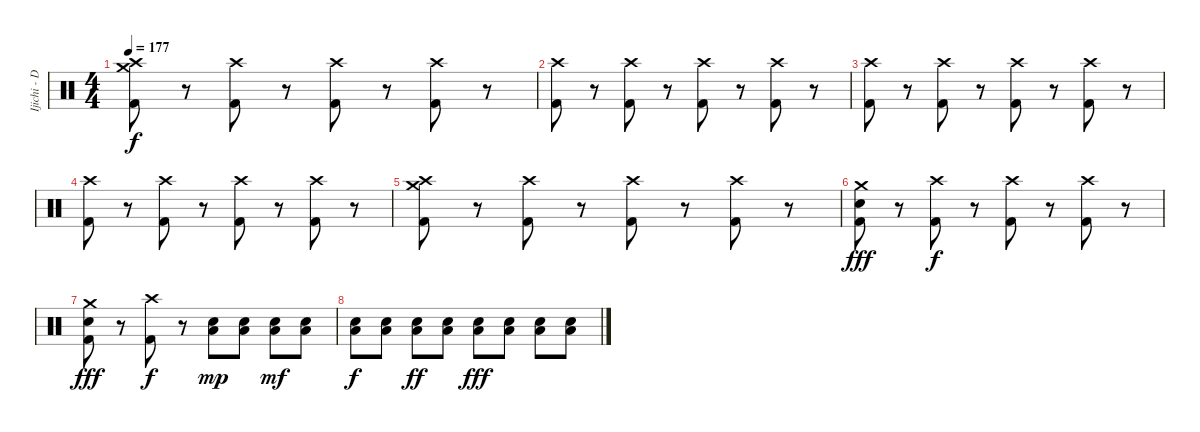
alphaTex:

\track ("Ijichi - Drums" "Ijichi - D") {instrument percussion}
\staff {score}
\articulation defaults
\ts (4 4)
\tempo 177
\clef neutral
\ks c
("Crash high (hit)" "Crash medium (hit)" "Kick (hit) 2").8{dy f} r.8 ("Crash high (hit)" "Kick (hit) 2").8 r.8 ("Crash high (hit)" "Kick (hit) 2").8 r.8 ("Crash high (hit)" "Kick (hit) 2").8 r.8 |
("Crash high (hit)" "Kick (hit) 2").8 r.8 ("Crash high (hit)" "Kick (hit) 2").8 r.8 ("Crash high (hit)" "Kick (hit) 2").8 r.8 ("Crash high (hit)" "Kick (hit) 2").8 r.8 |
("Crash high (hit)" "Kick (hit) 2").8 r.8 ("Crash high (hit)" "Kick (hit) 2").8 r.8 ("Crash high (hit)" "Kick (hit) 2").8 r.8 ("Crash high (hit)" "Kick (hit) 2").8 r.8 |
("Crash high (hit)" "Kick (hit) 2").8 r.8 ("Crash high (hit)" "Kick (hit) 2").8 r.8 ("Crash high (hit)" "Kick (hit) 2").8 r.8 ("Crash high (hit)" "Kick (hit) 2").8 r.8 |
("Crash high (hit)" "Crash medium (hit)" "Kick (hit) 2").8 r.8 ("Crash high (hit)" "Kick (hit) 2").8 r.8 ("Crash high (hit)" "Kick (hit) 2").8 r.8 ("Crash high (hit)" "Kick (hit) 2").8 r.8 |
("Crash medium (hit)" "Snare (hit) 2" "Kick (hit) 2").8{dy fff} r.8 ("Crash high (hit)" "Kick (hit) 2").8{dy f} r.8 ("Crash high (hit)" "Kick (hit) 2").8 r.8 ("Crash high (hit)" "Kick (hit) 2").8 r.8 |
("Crash medium (hit)" "Snare (hit) 2" "Kick (hit) 2").8{dy fff} r.8 ("Crash high (hit)" "Kick (hit) 2").8{dy f} r.8 ("Snare (hit) 2" "Low Floor Tom (hit)").8{dy mp} ("Snare (hit) 2" "Low Floor Tom (hit)").8 ("Snare (hit) 2" "Low Floor Tom (hit)").8{dy mf} ("Snare (hit) 2" "Low Floor Tom (hit)").8 |
("Snare (hit) 2" "Low Floor Tom (hit)").8{dy f} ("Snare (hit) 2" "Low Floor Tom (hit)").8 ("Snare (hit) 2" "Low Floor Tom (hit)").8{dy ff} ("Snare (hit) 2" "Low Floor Tom (hit)").8 ("Snare (hit) 2" "Low Floor Tom (hit)").8{dy fff} ("Snare (hit) 2" "Low Floor Tom (hit)").8 ("Snare (hit) 2" "Low Floor Tom (hit)").8 ("Snare (hit) 2" "Low Floor Tom (hit)").8
